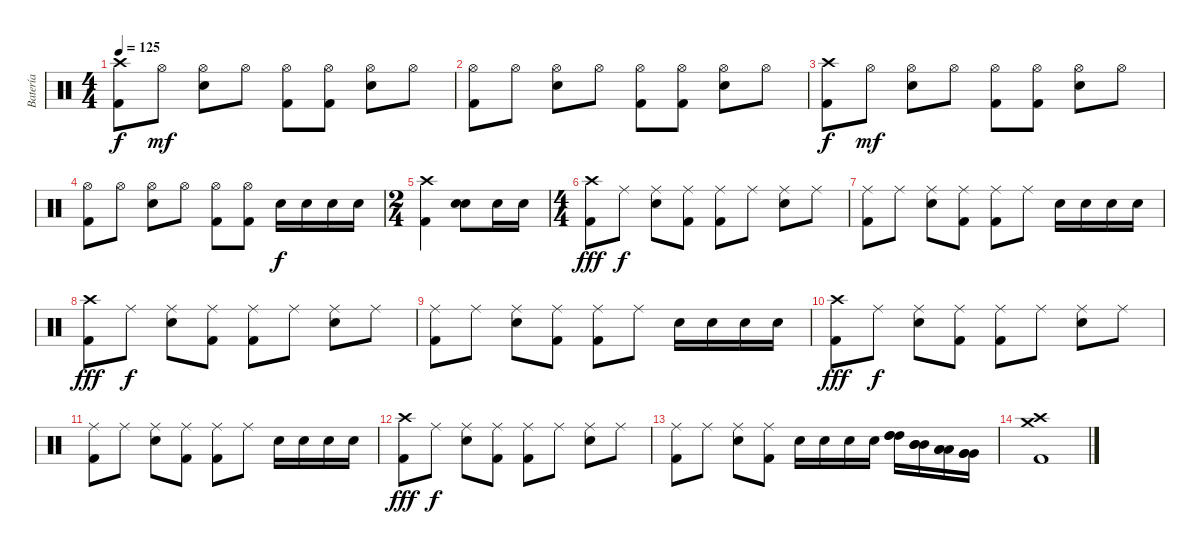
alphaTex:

\track ("Batería" "Batería") {instrument percussion}
\staff {score}
\articulation defaults
\ts (4 4)
\tempo 125
\clef neutral
\ks c
("Crash high (hit)" "Kick (hit) 2").8{dy f} "Hi-Hat (open)".8{dy mf} ("Hi-Hat (open)" "Snare (hit) 2").8 "Hi-Hat (open)".8 ("Hi-Hat (open)" "Kick (hit) 2").8 ("Hi-Hat (open)" "Kick (hit) 2").8 ("Hi-Hat (open)" "Snare (hit) 2").8 "Hi-Hat (open)".8 |
("Hi-Hat (open)" "Kick (hit) 2").8 "Hi-Hat (open)".8 ("Hi-Hat (open)" "Snare (hit) 2").8 "Hi-Hat (open)".8 ("Hi-Hat (open)" "Kick (hit) 2").8 ("Hi-Hat (open)" "Kick (hit) 2").8 ("Hi-Hat (open)" "Snare (hit) 2").8 "Hi-Hat (open)".8 |
("Crash high (hit)" "Kick (hit) 2").8{dy f} "Hi-Hat (open)".8{dy mf} ("Hi-Hat (open)" "Snare (hit) 2").8 "Hi-Hat (open)".8 ("Hi-Hat (open)" "Kick (hit) 2").8 ("Hi-Hat (open)" "Kick (hit) 2").8 ("Hi-Hat (open)" "Snare (hit) 2").8 "Hi-Hat (open)".8 |
("Hi-Hat (open)" "Kick (hit) 2").8 "Hi-Hat (open)".8 ("Hi-Hat (open)" "Snare (hit) 2").8 "Hi-Hat (open)".8 ("Hi-Hat (open)" "Kick (hit) 2").8 ("Hi-Hat (open)" "Kick (hit) 2").8 "Snare (hit) 2".16{dy f} "Snare (hit) 2".16 "Snare (hit) 2".16 "Snare (hit) 2".16 |
\ts (2 4)
("Crash high (hit)" "Kick (hit) 2").4 ("Snare (hit) 2" "Snare (hit) 2").8{bd 480} "Snare (hit) 2".16 "Snare (hit) 2".16 |
\ts (4 4)
("Crash high (hit)" "Kick (hit) 2").8{dy fff} "Ride (middle)".8{dy f} ("Ride (middle)" "Snare (hit) 2").8 ("Ride (middle)" "Kick (hit) 2").8 ("Ride (middle)" "Kick (hit) 2").8 "Ride (middle)".8 ("Ride (middle)" "Snare (hit) 2").8 "Ride (middle)".8 |
("Ride (middle)" "Kick (hit) 2").8 "Ride (middle)".8 ("Ride (middle)" "Snare (hit) 2").8 ("Ride (middle)" "Kick (hit) 2").8 ("Ride (middle)" "Kick (hit) 2").8 "Ride (middle)".8 "Snare (hit) 2".16 "Snare (hit) 2".16 "Snare (hit) 2".16 "Snare (hit) 2".16 |
("Crash high (hit)" "Kick (hit) 2").8{dy fff} "Ride (middle)".8{dy f} ("Ride (middle)" "Snare (hit) 2").8 ("Ride (middle)" "Kick (hit) 2").8 ("Ride (middle)" "Kick (hit) 2").8 "Ride (middle)".8 ("Ride (middle)" "Snare (hit) 2").8 "Ride (middle)".8 |
("Ride (middle)" "Kick (hit) 2").8 "Ride (middle)".8 ("Ride (middle)" "Snare (hit) 2").8 ("Ride (middle)" "Kick (hit) 2").8 ("Ride (middle)" "Kick (hit) 2").8 "Ride (middle)".8 "Snare (hit) 2".16 "Snare (hit) 2".16 "Snare (hit) 2".16 "Snare (hit) 2".16 |
("Crash high (hit)" "Kick (hit) 2").8{dy fff} "Ride (middle)".8{dy f} ("Ride (middle)" "Snare (hit) 2").8 ("Ride (middle)" "Kick (hit) 2").8 ("Ride (middle)" "Kick (hit) 2").8 "Ride (middle)".8 ("Ride (middle)" "Snare (hit) 2").8 "Ride (middle)".8 |
("Ride (middle)" "Kick (hit) 2").8 "Ride (middle)".8 ("Ride (middle)" "Snare (hit) 2").8 ("Ride (middle)" "Kick (hit) 2").8 ("Ride (middle)" "Kick (hit) 2").8 "Ride (middle)".8 "Snare (hit) 2".16 "Snare (hit) 2".16 "Snare (hit) 2".16 "Snare (hit) 2".16 |
("Crash high (hit)" "Kick (hit) 2").8{dy fff} "Ride (middle)".8{dy f} ("Ride (middle)" "Snare (hit) 2").8 ("Ride (middle)" "Kick (hit) 2").8 ("Ride (middle)" "Kick (hit) 2").8 "Ride (middle)".8 ("Ride (middle)" "Snare (hit) 2").8 "Ride (middle)".8 |
("Ride (middle)" "Kick (hit) 2").8 "Ride (middle)".8 ("Ride (middle)" "Snare (hit) 2").8 ("Ride (middle)" "Kick (hit) 2").8 "Snare (hit) 2".16 "Snare (hit) 2".16 "Snare (hit) 2".16 "Snare (hit) 2".16 ("High Tom (hit)" "High Tom (hit)" "High Tom (hit)").16 ("Mid Tom (hit)" "Mid Tom (hit)" "Mid Tom (hit)").16 ("Low Tom (hit)" "Low Tom (hit)" "Low Tom (hit)").16 ("Very Low Tom (hit)" "Very Low Tom (hit)" "Very Low Tom (hit)").16 |
("Crash high (hit)" "Crash medium (hit)" "Kick (hit) 2").1
